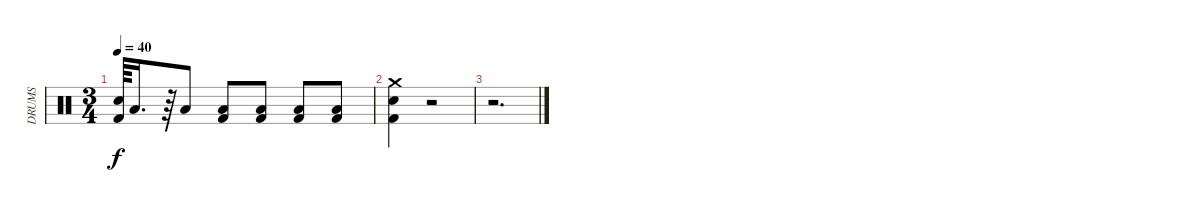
\track ("DRUMS" "DRUMS") {instrument percussion}
\staff {score}
\articulation defaults
\ts (3 4)
\tempo 40
\clef neutral
\ks c
("Kick (hit) 2" "Electric Snare (hit)").64{dy f} "Low Tom (hit)".16{d} r.64 "Low Tom (hit)".8 ("Kick (hit) 2" "Low Floor Tom (hit)").8 ("Kick (hit) 2" "Low Floor Tom (hit)").8 ("Kick (hit) 2" "Low Floor Tom (hit)").8 ("Kick (hit) 2" "Low Floor Tom (hit)").8 |
("Kick (hit) 2" "Electric Snare (hit)" "Crash medium (hit)").4 r.2 |
r.2{d}
